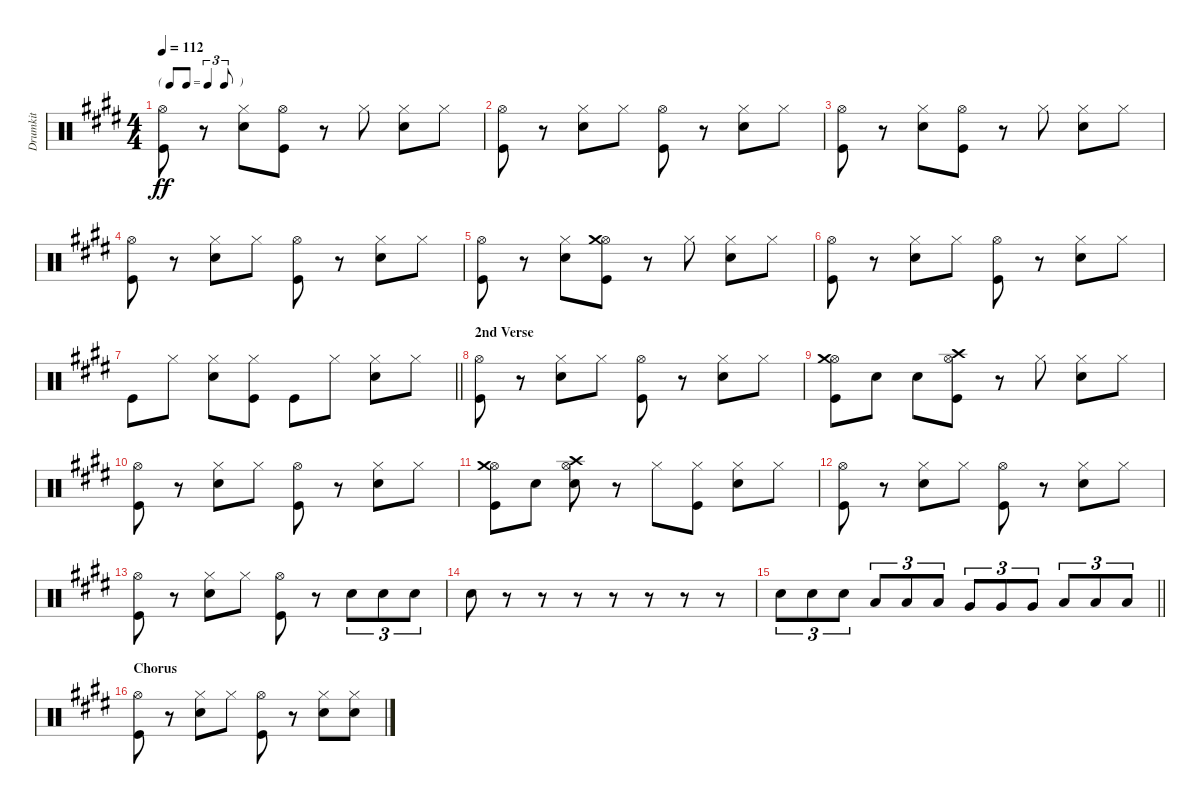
\track ("Drumkit" "Drumkit") {instrument percussion}
\staff {score}
\articulation defaults
\ts (4 4)
\tf triplet8th
\tempo 112
\clef neutral
\ks e
("Hi-Hat (open)" "Kick (hit)").8{dy ff} r.8 ("Snare (hit) 2" "Hi-Hat (closed)").8 ("Hi-Hat (open)" "Kick (hit)").8 r.8 "Hi-Hat (closed)".8 ("Snare (hit) 2" "Hi-Hat (closed)").8 "Hi-Hat (closed)".8 |
("Hi-Hat (open)" "Kick (hit)").8 r.8 ("Snare (hit) 2" "Hi-Hat (closed)").8 "Hi-Hat (closed)".8 ("Kick (hit)" "Hi-Hat (open)").8 r.8 ("Snare (hit) 2" "Hi-Hat (closed)").8 "Hi-Hat (closed)".8 |
("Hi-Hat (open)" "Kick (hit)").8 r.8 ("Snare (hit) 2" "Hi-Hat (closed)").8 ("Hi-Hat (open)" "Kick (hit)").8 r.8 "Hi-Hat (closed)".8 ("Snare (hit) 2" "Hi-Hat (closed)").8 "Hi-Hat (closed)".8 |
("Hi-Hat (open)" "Kick (hit)").8 r.8 ("Snare (hit) 2" "Hi-Hat (closed)").8 "Hi-Hat (closed)".8 ("Kick (hit)" "Hi-Hat (open)").8 r.8 ("Snare (hit) 2" "Hi-Hat (closed)").8 "Hi-Hat (closed)".8 |
("Hi-Hat (open)" "Kick (hit)").8 r.8 ("Snare (hit) 2" "Hi-Hat (closed)").8 ("Hi-Hat (open)" "Kick (hit)" "Crash medium (hit)").8 r.8 "Hi-Hat (closed)".8 ("Snare (hit) 2" "Hi-Hat (closed)").8 "Hi-Hat (closed)".8 |
("Hi-Hat (open)" "Kick (hit)").8 r.8 ("Snare (hit) 2" "Hi-Hat (closed)").8 "Hi-Hat (closed)".8 ("Kick (hit)" "Hi-Hat (open)").8 r.8 ("Snare (hit) 2" "Hi-Hat (closed)").8 "Hi-Hat (closed)".8 |
\barLineRight lightlight "Kick (hit)".8 "Hi-Hat (closed)".8
("Snare (hit) 2" "Hi-Hat (closed)").8 ("Hi-Hat (closed)" "Kick (hit)").8 "Kick (hit)".8 "Hi-Hat (closed)".8 ("Snare (hit) 2" "Hi-Hat (closed)").8 "Hi-Hat (closed)".8 |
\section ("" "2nd Verse")
("Hi-Hat (open)" "Kick (hit)").8 r.8 ("Snare (hit) 2" "Hi-Hat (closed)").8 "Hi-Hat (closed)".8 ("Kick (hit)" "Hi-Hat (open)").8 r.8 ("Snare (hit) 2" "Hi-Hat (closed)").8 "Hi-Hat (closed)".8 |
("Kick (hit)" "Hi-Hat (open)" "Crash medium (hit)").8 "Snare (hit) 2".8 "Snare (hit) 2".8 ("Kick (hit)" "Crash high (hit)" "Hi-Hat (open)").8 r.8 "Hi-Hat (closed)".8 ("Snare (hit) 2" "Hi-Hat (closed)").8 "Hi-Hat (closed)".8 |
("Hi-Hat (open)" "Kick (hit)").8 r.8 ("Snare (hit) 2" "Hi-Hat (closed)").8 "Hi-Hat (closed)".8 ("Kick (hit)" "Hi-Hat (open)").8 r.8 ("Snare (hit) 2" "Hi-Hat (closed)").8 "Hi-Hat (closed)".8 |
("Kick (hit)" "Hi-Hat (open)" "Crash medium (hit)").8 "Snare (hit) 2".8 ("Snare (hit) 2" "Crash high (hit)" "Hi-Hat (open)").8 r.8 "Hi-Hat (closed)".8 ("Hi-Hat (closed)" "Kick (hit)").8 ("Snare (hit) 2" "Hi-Hat (closed)").8 "Hi-Hat (closed)".8 |
("Hi-Hat (open)" "Kick (hit)").8 r.8 ("Snare (hit) 2" "Hi-Hat (closed)").8 "Hi-Hat (closed)".8 ("Kick (hit)" "Hi-Hat (open)").8 r.8 ("Snare (hit) 2" "Hi-Hat (closed)").8 "Hi-Hat (closed)".8 |
("Hi-Hat (open)" "Kick (hit)").8 r.8 ("Snare (hit) 2" "Hi-Hat (closed)").8 "Hi-Hat (closed)".8 ("Kick (hit)" "Hi-Hat (open)").8 r.8 "Snare (hit) 2".8{tu (3 2)} "Snare (hit) 2".8{tu (3 2)} "Snare (hit) 2".8{tu (3 2)} |
"Snare (hit) 2".8 r.8 r.8 r.8 r.8 r.8 r.8 r.8 |
\barLineRight lightlight "Snare (hit) 2".8{tu (3 2)} "Snare (hit) 2".8{tu (3 2)} "Snare (hit) 2".8{tu (3 2)} "Low Tom (hit)".8{tu (3 2)} "Low Tom (hit)".8{tu (3 2)} "Low Tom (hit)".8{tu (3 2)} "Very Low Tom (hit)".8{tu (3 2)} "Very Low Tom (hit)".8{tu (3 2)} "Very Low Tom (hit)".8{tu (3 2)} "Low Floor Tom (hit)".8{tu (3 2)} "Low Floor Tom (hit)".8{tu (3 2)} "Low Floor Tom (hit)".8{tu (3 2)}
|
\section ("" "Chorus")
("Hi-Hat (open)" "Kick (hit)").8 r.8 ("Snare (hit) 2" "Hi-Hat (closed)").8 "Hi-Hat (closed)".8 ("Kick (hit)" "Hi-Hat (open)").8 r.8 ("Snare (hit) 2" "Hi-Hat (closed)").8 ("Hi-Hat (closed)" "Snare (hit) 2").8
